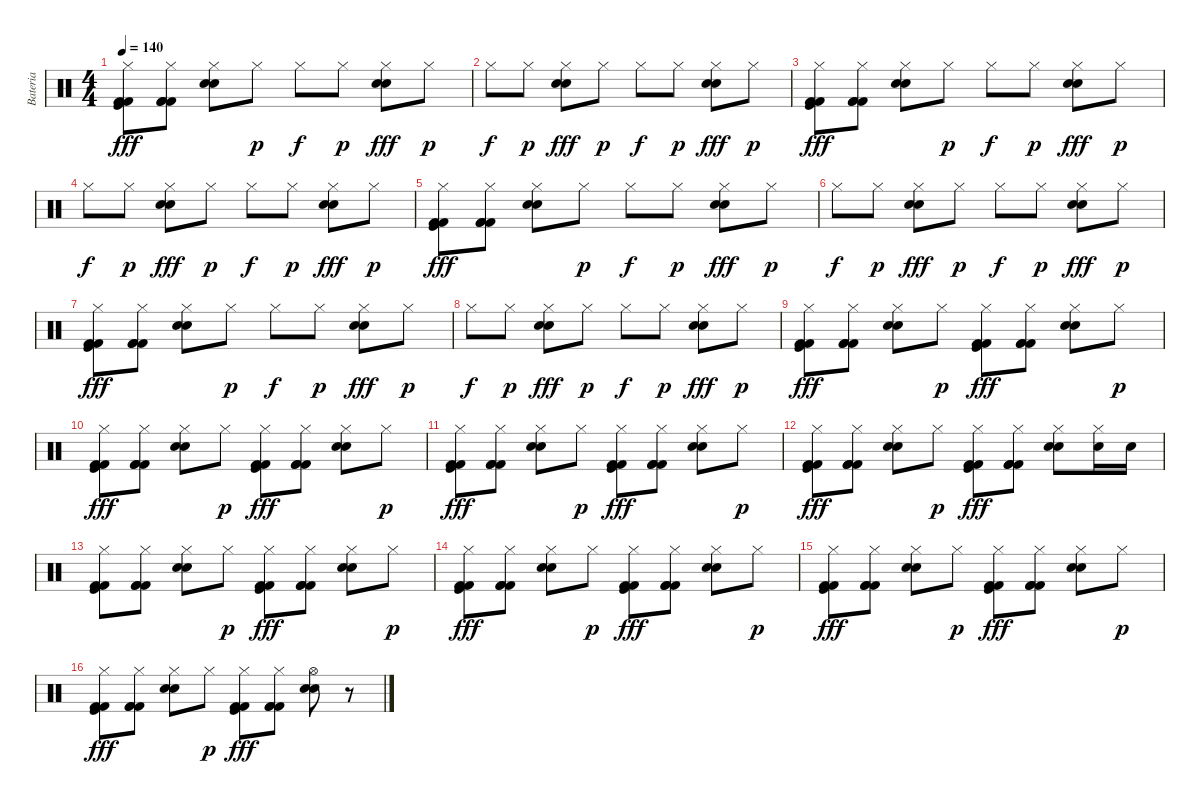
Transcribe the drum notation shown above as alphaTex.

\track ("Bateria" "Bateria") {instrument percussion}
\staff {score}
\articulation defaults
\ts (4 4)
\tempo 140
\clef neutral
\ks c
("Hi-Hat (closed)" "Kick (hit) 2" "Kick (hit) 2" "Kick (hit)").8{dy fff} ("Hi-Hat (closed)" "Kick (hit) 2" "Kick (hit) 2" "Kick (hit) 2").8 ("Hi-Hat (closed)" "Snare (hit) 2" "Snare (hit) 2").8 "Hi-Hat (closed)".8{dy p} "Hi-Hat (closed)".8{dy f} "Hi-Hat (closed)".8{dy p} ("Hi-Hat (closed)" "Snare (hit) 2" "Snare (hit) 2").8{dy fff} "Hi-Hat (closed)".8{dy p} |
"Hi-Hat (closed)".8{dy f} "Hi-Hat (closed)".8{dy p} ("Hi-Hat (closed)" "Snare (hit) 2" "Snare (hit) 2").8{dy fff} "Hi-Hat (closed)".8{dy p} "Hi-Hat (closed)".8{dy f} "Hi-Hat (closed)".8{dy p} ("Hi-Hat (closed)" "Snare (hit) 2" "Snare (hit) 2").8{dy fff} "Hi-Hat (closed)".8{dy p} |
("Hi-Hat (closed)" "Kick (hit) 2" "Kick (hit) 2" "Kick (hit)").8{dy fff} ("Hi-Hat (closed)" "Kick (hit) 2" "Kick (hit) 2" "Kick (hit) 2").8 ("Hi-Hat (closed)" "Snare (hit) 2" "Snare (hit) 2").8 "Hi-Hat (closed)".8{dy p} "Hi-Hat (closed)".8{dy f} "Hi-Hat (closed)".8{dy p} ("Hi-Hat (closed)" "Snare (hit) 2" "Snare (hit) 2").8{dy fff} "Hi-Hat (closed)".8{dy p} |
"Hi-Hat (closed)".8{dy f} "Hi-Hat (closed)".8{dy p} ("Hi-Hat (closed)" "Snare (hit) 2" "Snare (hit) 2").8{dy fff} "Hi-Hat (closed)".8{dy p} "Hi-Hat (closed)".8{dy f} "Hi-Hat (closed)".8{dy p} ("Hi-Hat (closed)" "Snare (hit) 2" "Snare (hit) 2").8{dy fff} "Hi-Hat (closed)".8{dy p} |
("Hi-Hat (closed)" "Kick (hit) 2" "Kick (hit) 2" "Kick (hit)").8{dy fff} ("Hi-Hat (closed)" "Kick (hit) 2" "Kick (hit) 2" "Kick (hit) 2").8 ("Hi-Hat (closed)" "Snare (hit) 2" "Snare (hit) 2").8 "Hi-Hat (closed)".8{dy p} "Hi-Hat (closed)".8{dy f} "Hi-Hat (closed)".8{dy p} ("Hi-Hat (closed)" "Snare (hit) 2" "Snare (hit) 2").8{dy fff} "Hi-Hat (closed)".8{dy p} |
"Hi-Hat (closed)".8{dy f} "Hi-Hat (closed)".8{dy p} ("Hi-Hat (closed)" "Snare (hit) 2" "Snare (hit) 2").8{dy fff} "Hi-Hat (closed)".8{dy p} "Hi-Hat (closed)".8{dy f} "Hi-Hat (closed)".8{dy p} ("Hi-Hat (closed)" "Snare (hit) 2" "Snare (hit) 2").8{dy fff} "Hi-Hat (closed)".8{dy p} |
("Hi-Hat (closed)" "Kick (hit) 2" "Kick (hit) 2" "Kick (hit)").8{dy fff} ("Hi-Hat (closed)" "Kick (hit) 2" "Kick (hit) 2" "Kick (hit) 2").8 ("Hi-Hat (closed)" "Snare (hit) 2" "Snare (hit) 2").8 "Hi-Hat (closed)".8{dy p} "Hi-Hat (closed)".8{dy f} "Hi-Hat (closed)".8{dy p} ("Hi-Hat (closed)" "Snare (hit) 2" "Snare (hit) 2").8{dy fff} "Hi-Hat (closed)".8{dy p} |
"Hi-Hat (closed)".8{dy f} "Hi-Hat (closed)".8{dy p} ("Hi-Hat (closed)" "Snare (hit) 2" "Snare (hit) 2").8{dy fff} "Hi-Hat (closed)".8{dy p} "Hi-Hat (closed)".8{dy f} "Hi-Hat (closed)".8{dy p} ("Hi-Hat (closed)" "Snare (hit) 2" "Snare (hit) 2").8{dy fff} "Hi-Hat (closed)".8{dy p} |
("Hi-Hat (closed)" "Kick (hit) 2" "Kick (hit) 2" "Kick (hit)").8{dy fff} ("Hi-Hat (closed)" "Kick (hit) 2" "Kick (hit) 2" "Kick (hit) 2").8 ("Hi-Hat (closed)" "Snare (hit) 2" "Snare (hit) 2").8 "Hi-Hat (closed)".8{dy p} ("Hi-Hat (closed)" "Kick (hit) 2" "Kick (hit) 2" "Kick (hit)").8{dy fff} ("Hi-Hat (closed)" "Kick (hit) 2" "Kick (hit) 2" "Kick (hit) 2").8 ("Hi-Hat (closed)" "Snare (hit) 2" "Snare (hit) 2").8 "Hi-Hat (closed)".8{dy p} |
("Hi-Hat (closed)" "Kick (hit) 2" "Kick (hit) 2" "Kick (hit)").8{dy fff} ("Hi-Hat (closed)" "Kick (hit) 2" "Kick (hit) 2" "Kick (hit) 2").8 ("Hi-Hat (closed)" "Snare (hit) 2" "Snare (hit) 2").8 "Hi-Hat (closed)".8{dy p} ("Hi-Hat (closed)" "Kick (hit) 2" "Kick (hit) 2" "Kick (hit)").8{dy fff} ("Hi-Hat (closed)" "Kick (hit) 2" "Kick (hit) 2" "Kick (hit) 2").8 ("Hi-Hat (closed)" "Snare (hit) 2" "Snare (hit) 2").8 "Hi-Hat (closed)".8{dy p} |
("Hi-Hat (closed)" "Kick (hit) 2" "Kick (hit) 2" "Kick (hit)").8{dy fff} ("Hi-Hat (closed)" "Kick (hit) 2" "Kick (hit) 2" "Kick (hit) 2").8 ("Hi-Hat (closed)" "Snare (hit) 2" "Snare (hit) 2").8 "Hi-Hat (closed)".8{dy p} ("Hi-Hat (closed)" "Kick (hit) 2" "Kick (hit) 2" "Kick (hit)").8{dy fff} ("Hi-Hat (closed)" "Kick (hit) 2" "Kick (hit) 2" "Kick (hit) 2").8 ("Hi-Hat (closed)" "Snare (hit) 2" "Snare (hit) 2").8 "Hi-Hat (closed)".8{dy p} |
("Hi-Hat (closed)" "Kick (hit) 2" "Kick (hit) 2" "Kick (hit)").8{dy fff} ("Hi-Hat (closed)" "Kick (hit) 2" "Kick (hit) 2" "Kick (hit) 2").8 ("Hi-Hat (closed)" "Snare (hit) 2" "Snare (hit) 2").8 "Hi-Hat (closed)".8{dy p} ("Hi-Hat (closed)" "Kick (hit) 2" "Kick (hit) 2" "Kick (hit)").8{dy fff} ("Hi-Hat (closed)" "Kick (hit) 2" "Kick (hit) 2" "Kick (hit) 2").8 ("Hi-Hat (closed)" "Snare (hit) 2" "Snare (hit) 2").8 ("Hi-Hat (closed)" "Snare (hit) 2").16 "Snare (hit) 2".16 |
("Hi-Hat (closed)" "Kick (hit) 2" "Kick (hit) 2" "Kick (hit)").8 ("Hi-Hat (closed)" "Kick (hit) 2" "Kick (hit) 2" "Kick (hit) 2").8 ("Hi-Hat (closed)" "Snare (hit) 2" "Snare (hit) 2").8 "Hi-Hat (closed)".8{dy p} ("Hi-Hat (closed)" "Kick (hit) 2" "Kick (hit) 2" "Kick (hit)").8{dy fff} ("Hi-Hat (closed)" "Kick (hit) 2" "Kick (hit) 2" "Kick (hit) 2").8 ("Hi-Hat (closed)" "Snare (hit) 2" "Snare (hit) 2").8 "Hi-Hat (closed)".8{dy p} |
("Hi-Hat (closed)" "Kick (hit) 2" "Kick (hit) 2" "Kick (hit)").8{dy fff} ("Hi-Hat (closed)" "Kick (hit) 2" "Kick (hit) 2" "Kick (hit) 2").8 ("Hi-Hat (closed)" "Snare (hit) 2" "Snare (hit) 2").8 "Hi-Hat (closed)".8{dy p} ("Hi-Hat (closed)" "Kick (hit) 2" "Kick (hit) 2" "Kick (hit)").8{dy fff} ("Hi-Hat (closed)" "Kick (hit) 2" "Kick (hit) 2" "Kick (hit) 2").8 ("Hi-Hat (closed)" "Snare (hit) 2" "Snare (hit) 2").8 "Hi-Hat (closed)".8{dy p} |
("Hi-Hat (closed)" "Kick (hit) 2" "Kick (hit) 2" "Kick (hit)").8{dy fff} ("Hi-Hat (closed)" "Kick (hit) 2" "Kick (hit) 2" "Kick (hit) 2").8 ("Hi-Hat (closed)" "Snare (hit) 2" "Snare (hit) 2").8 "Hi-Hat (closed)".8{dy p} ("Hi-Hat (closed)" "Kick (hit) 2" "Kick (hit) 2" "Kick (hit)").8{dy fff} ("Hi-Hat (closed)" "Kick (hit) 2" "Kick (hit) 2" "Kick (hit) 2").8 ("Hi-Hat (closed)" "Snare (hit) 2" "Snare (hit) 2").8 "Hi-Hat (closed)".8{dy p} |
("Hi-Hat (closed)" "Kick (hit) 2" "Kick (hit) 2" "Kick (hit)").8{dy fff} ("Hi-Hat (closed)" "Kick (hit) 2" "Kick (hit) 2" "Kick (hit) 2").8 ("Hi-Hat (closed)" "Snare (hit) 2" "Snare (hit) 2").8 "Hi-Hat (closed)".8{dy p} ("Hi-Hat (closed)" "Kick (hit) 2" "Kick (hit) 2" "Kick (hit)").8{dy fff} ("Hi-Hat (closed)" "Kick (hit) 2" "Kick (hit) 2" "Kick (hit) 2").8 ("Hi-Hat (open)" "Snare (hit) 2" "Snare (hit) 2").8 r.8
